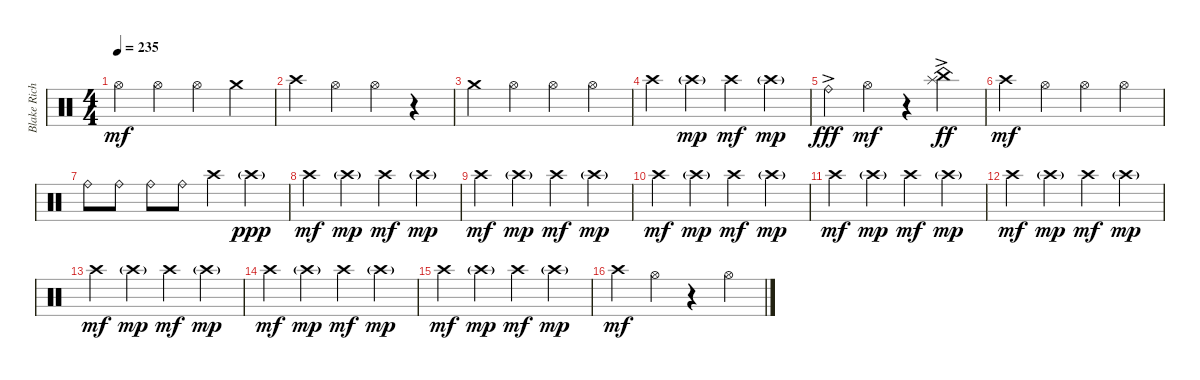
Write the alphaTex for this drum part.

\track ("Blake Richardson Drums" "Blake Rich") {instrument percussion}
\staff {score}
\articulation defaults
\ts (4 4)
\tempo 235
\clef neutral
\ks c "Hi-Hat (open)".4{dy mf} "Hi-Hat (open)".4 "Hi-Hat (open)".4 "Crash medium (hit)".4
|
"Crash high (hit)".4 "Hi-Hat (open)".4 "Hi-Hat (open)".4 r.4 |
"Crash medium (hit)".4 "Hi-Hat (open)".4 "Hi-Hat (open)".4 "Hi-Hat (open)".4 |
"Crash high (hit)".4 "Crash high (hit)"{g}.4{dy mp} "Crash high (hit)".4{dy mf} "Crash high (hit)"{g}.4{dy mp} |
"Ride (bell)"{ac}.4{dy fff} "Hi-Hat (open)".4{dy mf} r.4 ("China (hit)" "Splash (hit)"{ac}).4{dy ff} |
"Crash high (hit)".4{dy mf} "Hi-Hat (open)".4 "Hi-Hat (open)".4 "Hi-Hat (open)".4 |
"Ride (bell)".8 "Ride (bell)".8 "Ride (bell)".8 "Ride (bell)".8 "Crash high (hit)".4 "Crash high (hit)"{g}.4{dy ppp} |
"Crash high (hit)".4{dy mf} "Crash high (hit)"{g}.4{dy mp} "Crash high (hit)".4{dy mf} "Crash high (hit)"{g}.4{dy mp} |
"Crash high (hit)".4{dy mf} "Crash high (hit)"{g}.4{dy mp} "Crash high (hit)".4{dy mf} "Crash high (hit)"{g}.4{dy mp} |
"Crash high (hit)".4{dy mf} "Crash high (hit)"{g}.4{dy mp} "Crash high (hit)".4{dy mf} "Crash high (hit)"{g}.4{dy mp} |
"Crash high (hit)".4{dy mf} "Crash high (hit)"{g}.4{dy mp} "Crash high (hit)".4{dy mf} "Crash high (hit)"{g}.4{dy mp} |
"Crash high (hit)".4{dy mf} "Crash high (hit)"{g}.4{dy mp} "Crash high (hit)".4{dy mf} "Crash high (hit)"{g}.4{dy mp} |
"Crash high (hit)".4{dy mf} "Crash high (hit)"{g}.4{dy mp} "Crash high (hit)".4{dy mf} "Crash high (hit)"{g}.4{dy mp} |
"Crash high (hit)".4{dy mf} "Crash high (hit)"{g}.4{dy mp} "Crash high (hit)".4{dy mf} "Crash high (hit)"{g}.4{dy mp} |
"Crash high (hit)".4{dy mf} "Crash high (hit)"{g}.4{dy mp} "Crash high (hit)".4{dy mf} "Crash high (hit)"{g}.4{dy mp} |
"Crash high (hit)".4{dy mf} "Hi-Hat (open)".4 r.4 "Hi-Hat (open)".4
